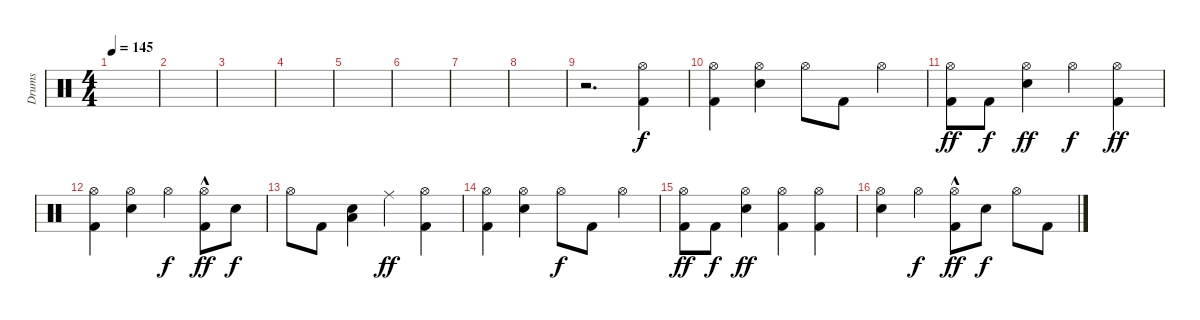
\track ("Drums" "Drums") {instrument percussion}
\staff {score}
\articulation defaults
\ts (4 4)
\tempo 145
\clef neutral
\ks c
|
|
|
|
|
|
|
|
r.2{d} ("Hi-Hat (open)" "Kick (hit) 2").4 |
("Hi-Hat (open)" "Kick (hit) 2").4 ("Hi-Hat (open)" "Electric Snare (hit)").4 "Hi-Hat (open)".8{dy f} "Kick (hit) 2".8 "Hi-Hat (open)".4 |
("Hi-Hat (open)" "Kick (hit) 2").8{dy ff} "Kick (hit) 2".8{dy f} ("Hi-Hat (open)" "Electric Snare (hit)").4{dy ff} "Hi-Hat (open)".4{dy f} ("Hi-Hat (open)" "Kick (hit) 2").4{dy ff} |
("Hi-Hat (open)" "Kick (hit) 2").4 ("Hi-Hat (open)" "Electric Snare (hit)").4 "Hi-Hat (open)".4{dy f} ("Hi-Hat (open)"{hac} "Kick (hit) 2").8{dy ff} "Electric Snare (hit)".8{dy f} |
"Hi-Hat (open)".8 "Kick (hit) 2".8 ("Low Tom (hit)" "Electric Snare (hit)").4 "Ride (middle)".4{dy ff} ("Hi-Hat (open)" "Kick (hit) 2").4 |
("Hi-Hat (open)" "Kick (hit) 2").4 ("Hi-Hat (open)" "Electric Snare (hit)").4 "Hi-Hat (open)".8{dy f} "Kick (hit) 2".8 "Hi-Hat (open)".4 |
("Hi-Hat (open)" "Kick (hit) 2").8{dy ff} "Kick (hit) 2".8{dy f} ("Hi-Hat (open)" "Electric Snare (hit)").4{dy ff} ("Hi-Hat (open)" "Kick (hit) 2").4 ("Hi-Hat (open)" "Kick (hit) 2").4 |
("Hi-Hat (open)" "Electric Snare (hit)").4 "Hi-Hat (open)".4{dy f} ("Hi-Hat (open)"{hac} "Kick (hit) 2").8{dy ff} "Electric Snare (hit)".8{dy f} "Hi-Hat (open)".8 "Kick (hit) 2".8
